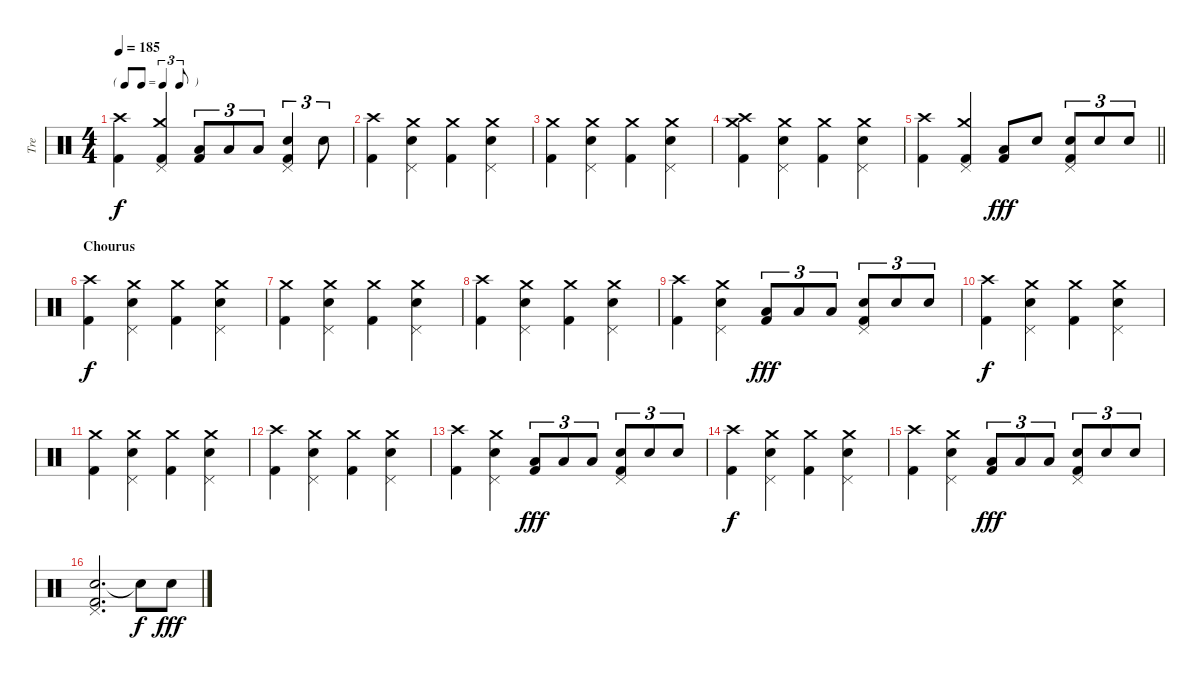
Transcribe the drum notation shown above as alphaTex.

\track ("Tre" "Tre") {instrument percussion}
\staff {score}
\articulation defaults
\ts (4 4)
\tf triplet8th
\tempo 185
\clef neutral
\ks c
("Crash high (hit)" "Kick (hit) 2").4{dy f} ("Crash medium (hit)" "Pedal Hi-Hat (hit)" "Kick (hit) 2").4 ("Low Tom (hit)" "Kick (hit) 2").8{tu (3 2)} "Low Tom (hit)".8{tu (3 2)} "Low Tom (hit)".8{tu (3 2)} ("Snare (hit) 2" "Pedal Hi-Hat (hit)" "Kick (hit) 2").4{tu (3 2)} "Snare (hit) 2".8{tu (3 2)} |
("Crash high (hit)" "Kick (hit) 2").4 ("Crash medium (hit)" "Snare (hit) 2" "Pedal Hi-Hat (hit)").4 ("Crash medium (hit)" "Kick (hit) 2").4 ("Crash medium (hit)" "Snare (hit) 2" "Pedal Hi-Hat (hit)").4 |
("Crash medium (hit)" "Kick (hit) 2").4 ("Crash medium (hit)" "Snare (hit) 2" "Pedal Hi-Hat (hit)").4 ("Crash medium (hit)" "Kick (hit) 2").4 ("Crash medium (hit)" "Snare (hit) 2" "Pedal Hi-Hat (hit)").4 |
("Crash medium (hit)" "Crash high (hit)" "Kick (hit) 2").4 ("Crash medium (hit)" "Snare (hit) 2" "Pedal Hi-Hat (hit)").4 ("Crash medium (hit)" "Kick (hit) 2").4 ("Crash medium (hit)" "Snare (hit) 2" "Pedal Hi-Hat (hit)").4 |
\barLineRight lightlight
("Crash high (hit)" "Kick (hit) 2").4 ("Crash medium (hit)" "Pedal Hi-Hat (hit)" "Kick (hit) 2").4 ("Low Tom (hit)" "Kick (hit) 2").8{dy fff} "Snare (hit) 2".8 ("Snare (hit) 2" "Pedal Hi-Hat (hit)" "Kick (hit) 2").8{tu (3 2)} "Snare (hit) 2".8{tu (3 2)} "Snare (hit) 2".8{tu (3 2)} |
\section ("" "Chourus")
("Crash high (hit)" "Kick (hit) 2").4{dy f} ("Crash medium (hit)" "Snare (hit) 2" "Pedal Hi-Hat (hit)").4 ("Crash medium (hit)" "Kick (hit) 2").4 ("Crash medium (hit)" "Snare (hit) 2" "Pedal Hi-Hat (hit)").4 |
("Crash medium (hit)" "Kick (hit) 2").4 ("Crash medium (hit)" "Snare (hit) 2" "Pedal Hi-Hat (hit)").4 ("Crash medium (hit)" "Kick (hit) 2").4 ("Crash medium (hit)" "Snare (hit) 2" "Pedal Hi-Hat (hit)").4 |
("Crash high (hit)" "Kick (hit) 2").4 ("Crash medium (hit)" "Snare (hit) 2" "Pedal Hi-Hat (hit)").4 ("Crash medium (hit)" "Kick (hit) 2").4 ("Crash medium (hit)" "Snare (hit) 2" "Pedal Hi-Hat (hit)").4 |
("Crash high (hit)" "Kick (hit) 2").4 ("Crash medium (hit)" "Snare (hit) 2" "Pedal Hi-Hat (hit)").4 ("Low Tom (hit)" "Kick (hit) 2").8{tu (3 2) dy fff} "Low Tom (hit)".8{tu (3 2)} "Low Tom (hit)".8{tu (3 2)} ("Snare (hit) 2" "Pedal Hi-Hat (hit)" "Kick (hit) 2").8{tu (3 2)} "Snare (hit) 2".8{tu (3 2)} "Snare (hit) 2".8{tu (3 2)} |
("Crash high (hit)" "Kick (hit) 2").4{dy f} ("Crash medium (hit)" "Snare (hit) 2" "Pedal Hi-Hat (hit)").4 ("Crash medium (hit)" "Kick (hit) 2").4 ("Crash medium (hit)" "Snare (hit) 2" "Pedal Hi-Hat (hit)").4 |
("Crash medium (hit)" "Kick (hit) 2").4 ("Crash medium (hit)" "Snare (hit) 2" "Pedal Hi-Hat (hit)").4 ("Crash medium (hit)" "Kick (hit) 2").4 ("Crash medium (hit)" "Snare (hit) 2" "Pedal Hi-Hat (hit)").4 |
("Crash high (hit)" "Kick (hit) 2").4 ("Crash medium (hit)" "Snare (hit) 2" "Pedal Hi-Hat (hit)").4 ("Crash medium (hit)" "Kick (hit) 2").4 ("Crash medium (hit)" "Snare (hit) 2" "Pedal Hi-Hat (hit)").4 |
("Crash high (hit)" "Kick (hit) 2").4 ("Crash medium (hit)" "Snare (hit) 2" "Pedal Hi-Hat (hit)").4 ("Low Tom (hit)" "Kick (hit) 2").8{tu (3 2) dy fff} "Low Tom (hit)".8{tu (3 2)} "Low Tom (hit)".8{tu (3 2)} ("Snare (hit) 2" "Pedal Hi-Hat (hit)" "Kick (hit) 2").8{tu (3 2)} "Snare (hit) 2".8{tu (3 2)} "Snare (hit) 2".8{tu (3 2)} |
("Crash high (hit)" "Kick (hit) 2").4{dy f} ("Crash medium (hit)" "Snare (hit) 2" "Pedal Hi-Hat (hit)").4 ("Crash medium (hit)" "Kick (hit) 2").4 ("Crash medium (hit)" "Snare (hit) 2" "Pedal Hi-Hat (hit)").4 |
("Crash high (hit)" "Kick (hit) 2").4 ("Crash medium (hit)" "Snare (hit) 2" "Pedal Hi-Hat (hit)").4 ("Low Tom (hit)" "Kick (hit) 2").8{tu (3 2) dy fff} "Low Tom (hit)".8{tu (3 2)} "Low Tom (hit)".8{tu (3 2)} ("Snare (hit) 2" "Pedal Hi-Hat (hit)" "Kick (hit) 2").8{tu (3 2)} "Snare (hit) 2".8{tu (3 2)} "Snare (hit) 2".8{tu (3 2)} |
("Snare (hit) 2" "Pedal Hi-Hat (hit)" "Kick (hit) 2").2{d} "Snare (hit)"{t}.8{dy f} "Snare (hit) 2".8{dy fff}
